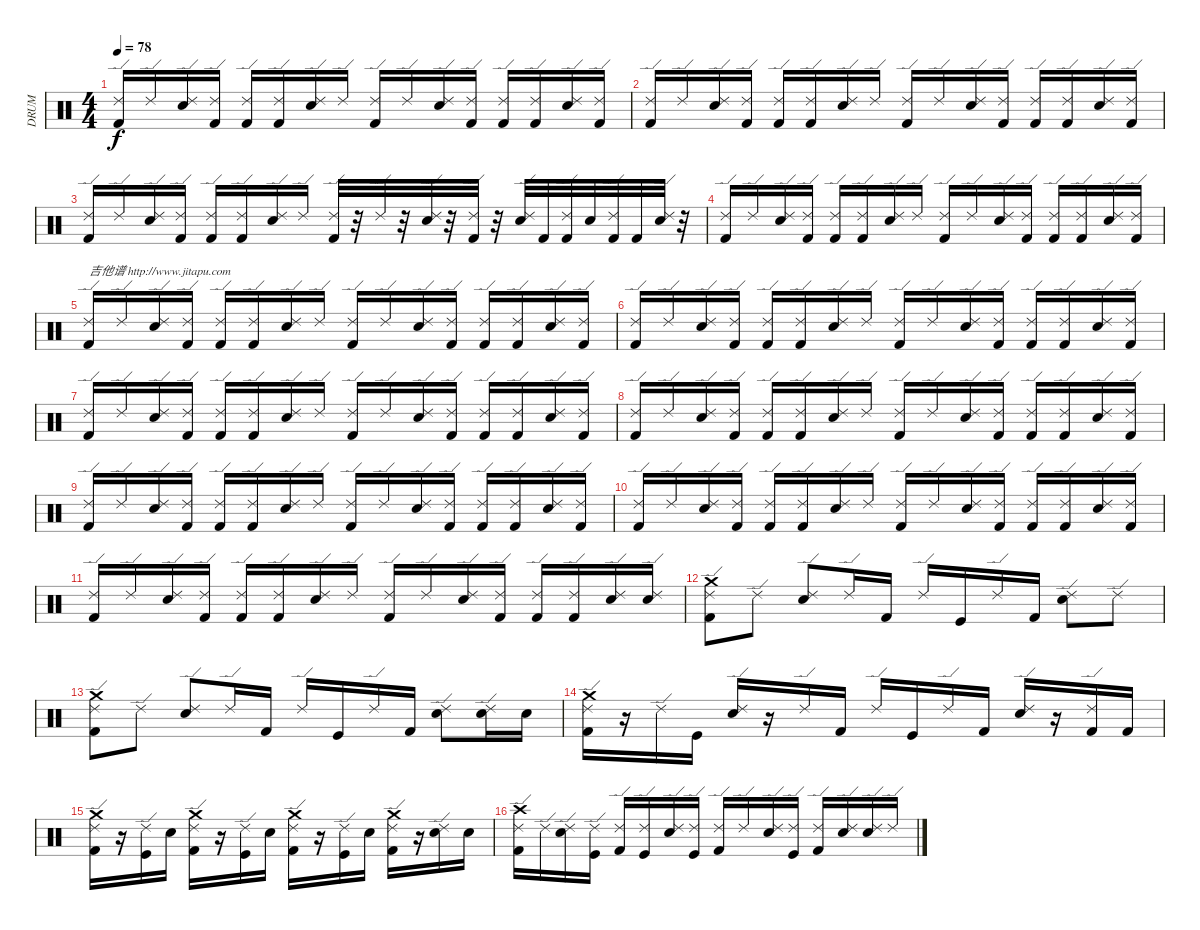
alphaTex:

\track ("DRUM" "DRUM") {instrument percussion}
\staff {score}
\articulation defaults
\ts (4 4)
\tempo 78
\clef neutral
\ks c
("Kick (hit) 2" "Ride (edge) 2").16{dy f} "Ride (edge) 2".16 ("Snare (hit) 2" "Ride (edge) 2").16 ("Kick (hit) 2" "Ride (edge) 2").16 ("Kick (hit) 2" "Ride (edge) 2").16 ("Kick (hit) 2" "Ride (edge) 2").16 ("Snare (hit) 2" "Ride (edge) 2").16 "Ride (edge) 2".16 ("Kick (hit) 2" "Ride (edge) 2").16 "Ride (edge) 2".16 ("Snare (hit) 2" "Ride (edge) 2").16 ("Kick (hit) 2" "Ride (edge) 2").16 ("Kick (hit) 2" "Ride (edge) 2").16 ("Kick (hit) 2" "Ride (edge) 2").16 ("Snare (hit) 2" "Ride (edge) 2").16 ("Kick (hit) 2" "Ride (edge) 2").16 |
("Kick (hit) 2" "Ride (edge) 2").16 "Ride (edge) 2".16 ("Snare (hit) 2" "Ride (edge) 2").16 ("Kick (hit) 2" "Ride (edge) 2").16 ("Kick (hit) 2" "Ride (edge) 2").16 ("Kick (hit) 2" "Ride (edge) 2").16 ("Snare (hit) 2" "Ride (edge) 2").16 "Ride (edge) 2".16 ("Kick (hit) 2" "Ride (edge) 2").16 "Ride (edge) 2".16 ("Snare (hit) 2" "Ride (edge) 2").16 ("Kick (hit) 2" "Ride (edge) 2").16 ("Kick (hit) 2" "Ride (edge) 2").16 ("Kick (hit) 2" "Ride (edge) 2").16 ("Snare (hit) 2" "Ride (edge) 2").16 ("Kick (hit) 2" "Ride (edge) 2").16 |
("Kick (hit) 2" "Ride (edge) 2").16 "Ride (edge) 2".16 ("Snare (hit) 2" "Ride (edge) 2").16 ("Kick (hit) 2" "Ride (edge) 2").16 ("Kick (hit) 2" "Ride (edge) 2").16 ("Kick (hit) 2" "Ride (edge) 2").16 ("Snare (hit) 2" "Ride (edge) 2").16 "Ride (edge) 2".16 ("Kick (hit) 2" "Ride (edge) 2").32 r.32 "Ride (edge) 2".32 r.32 ("Snare (hit) 2" "Ride (edge) 2").32 r.32 ("Kick (hit) 2" "Ride (edge) 2").32 r.32 ("Snare (hit) 2" "Ride (edge) 2").32 "Kick (hit) 2".32 ("Kick (hit) 2" "Ride (edge) 2").32 "Snare (hit) 2".32 ("Kick (hit) 2" "Ride (edge) 2").32 "Kick (hit) 2".32 ("Snare (hit) 2" "Ride (edge) 2").32 r.32 |
("Kick (hit) 2" "Ride (edge) 2").16 "Ride (edge) 2".16 ("Snare (hit) 2" "Ride (edge) 2").16 ("Kick (hit) 2" "Ride (edge) 2").16 ("Kick (hit) 2" "Ride (edge) 2").16 ("Kick (hit) 2" "Ride (edge) 2").16 ("Snare (hit) 2" "Ride (edge) 2").16 "Ride (edge) 2".16 ("Kick (hit) 2" "Ride (edge) 2").16 "Ride (edge) 2".16 ("Snare (hit) 2" "Ride (edge) 2").16 ("Kick (hit) 2" "Ride (edge) 2").16 ("Kick (hit) 2" "Ride (edge) 2").16 ("Kick (hit) 2" "Ride (edge) 2").16 ("Snare (hit) 2" "Ride (edge) 2").16 ("Kick (hit) 2" "Ride (edge) 2").16 |
("Kick (hit) 2" "Ride (edge) 2").16{txt "吉他谱 http://www.jitapu.com"} "Ride (edge) 2".16 ("Snare (hit) 2" "Ride (edge) 2").16 ("Kick (hit) 2" "Ride (edge) 2").16 ("Kick (hit) 2" "Ride (edge) 2").16 ("Kick (hit) 2" "Ride (edge) 2").16 ("Snare (hit) 2" "Ride (edge) 2").16 "Ride (edge) 2".16 ("Kick (hit) 2" "Ride (edge) 2").16 "Ride (edge) 2".16 ("Snare (hit) 2" "Ride (edge) 2").16 ("Kick (hit) 2" "Ride (edge) 2").16 ("Kick (hit) 2" "Ride (edge) 2").16 ("Kick (hit) 2" "Ride (edge) 2").16 ("Snare (hit) 2" "Ride (edge) 2").16 ("Kick (hit) 2" "Ride (edge) 2").16 |
("Kick (hit) 2" "Ride (edge) 2").16 "Ride (edge) 2".16 ("Snare (hit) 2" "Ride (edge) 2").16 ("Kick (hit) 2" "Ride (edge) 2").16 ("Kick (hit) 2" "Ride (edge) 2").16 ("Kick (hit) 2" "Ride (edge) 2").16 ("Snare (hit) 2" "Ride (edge) 2").16 "Ride (edge) 2".16 ("Kick (hit) 2" "Ride (edge) 2").16 "Ride (edge) 2".16 ("Snare (hit) 2" "Ride (edge) 2").16 ("Kick (hit) 2" "Ride (edge) 2").16 ("Kick (hit) 2" "Ride (edge) 2").16 ("Kick (hit) 2" "Ride (edge) 2").16 ("Snare (hit) 2" "Ride (edge) 2").16 ("Kick (hit) 2" "Ride (edge) 2").16 |
("Kick (hit) 2" "Ride (edge) 2").16 "Ride (edge) 2".16 ("Snare (hit) 2" "Ride (edge) 2").16 ("Kick (hit) 2" "Ride (edge) 2").16 ("Kick (hit) 2" "Ride (edge) 2").16 ("Kick (hit) 2" "Ride (edge) 2").16 ("Snare (hit) 2" "Ride (edge) 2").16 "Ride (edge) 2".16 ("Kick (hit) 2" "Ride (edge) 2").16 "Ride (edge) 2".16 ("Snare (hit) 2" "Ride (edge) 2").16 ("Kick (hit) 2" "Ride (edge) 2").16 ("Kick (hit) 2" "Ride (edge) 2").16 ("Kick (hit) 2" "Ride (edge) 2").16 ("Snare (hit) 2" "Ride (edge) 2").16 ("Kick (hit) 2" "Ride (edge) 2").16 |
("Kick (hit) 2" "Ride (edge) 2").16 "Ride (edge) 2".16 ("Snare (hit) 2" "Ride (edge) 2").16 ("Kick (hit) 2" "Ride (edge) 2").16 ("Kick (hit) 2" "Ride (edge) 2").16 ("Kick (hit) 2" "Ride (edge) 2").16 ("Snare (hit) 2" "Ride (edge) 2").16 "Ride (edge) 2".16 ("Kick (hit) 2" "Ride (edge) 2").16 "Ride (edge) 2".16 ("Snare (hit) 2" "Ride (edge) 2").16 ("Kick (hit) 2" "Ride (edge) 2").16 ("Kick (hit) 2" "Ride (edge) 2").16 ("Kick (hit) 2" "Ride (edge) 2").16 ("Snare (hit) 2" "Ride (edge) 2").16 ("Kick (hit) 2" "Ride (edge) 2").16 |
("Kick (hit) 2" "Ride (edge) 2").16 "Ride (edge) 2".16 ("Snare (hit) 2" "Ride (edge) 2").16 ("Kick (hit) 2" "Ride (edge) 2").16 ("Kick (hit) 2" "Ride (edge) 2").16 ("Kick (hit) 2" "Ride (edge) 2").16 ("Snare (hit) 2" "Ride (edge) 2").16 "Ride (edge) 2".16 ("Kick (hit) 2" "Ride (edge) 2").16 "Ride (edge) 2".16 ("Snare (hit) 2" "Ride (edge) 2").16 ("Kick (hit) 2" "Ride (edge) 2").16 ("Kick (hit) 2" "Ride (edge) 2").16 ("Kick (hit) 2" "Ride (edge) 2").16 ("Snare (hit) 2" "Ride (edge) 2").16 ("Kick (hit) 2" "Ride (edge) 2").16 |
("Kick (hit) 2" "Ride (edge) 2").16 "Ride (edge) 2".16 ("Snare (hit) 2" "Ride (edge) 2").16 ("Kick (hit) 2" "Ride (edge) 2").16 ("Kick (hit) 2" "Ride (edge) 2").16 ("Kick (hit) 2" "Ride (edge) 2").16 ("Snare (hit) 2" "Ride (edge) 2").16 "Ride (edge) 2".16 ("Kick (hit) 2" "Ride (edge) 2").16 "Ride (edge) 2".16 ("Snare (hit) 2" "Ride (edge) 2").16 ("Kick (hit) 2" "Ride (edge) 2").16 ("Kick (hit) 2" "Ride (edge) 2").16 ("Kick (hit) 2" "Ride (edge) 2").16 ("Snare (hit) 2" "Ride (edge) 2").16 ("Kick (hit) 2" "Ride (edge) 2").16 |
("Kick (hit) 2" "Ride (edge) 2").16 "Ride (edge) 2".16 ("Snare (hit) 2" "Ride (edge) 2").16 ("Kick (hit) 2" "Ride (edge) 2").16 ("Kick (hit) 2" "Ride (edge) 2").16 ("Kick (hit) 2" "Ride (edge) 2").16 ("Snare (hit) 2" "Ride (edge) 2").16 "Ride (edge) 2".16 ("Kick (hit) 2" "Ride (edge) 2").16 "Ride (edge) 2".16 ("Snare (hit) 2" "Ride (edge) 2").16 ("Kick (hit) 2" "Ride (edge) 2").16 ("Kick (hit) 2" "Ride (edge) 2").16 ("Kick (hit) 2" "Ride (edge) 2").16 ("Snare (hit) 2" "Ride (edge) 2").16 ("Snare (hit) 2" "Ride (edge) 2").16 |
("Kick (hit) 2" "Crash medium (hit)" "Ride (edge) 2").8 "Ride (edge) 2".8 ("Snare (hit) 2" "Ride (edge) 2").8 "Ride (edge) 2".16 "Kick (hit) 2".16 "Ride (edge) 2".16 "Kick (hit)".16 "Ride (edge) 2".16 "Kick (hit) 2".16 ("Snare (hit) 2" "Ride (edge) 2").8 "Ride (edge) 2".8 |
("Kick (hit) 2" "Crash medium (hit)" "Ride (edge) 2").8 "Ride (edge) 2".8 ("Snare (hit) 2" "Ride (edge) 2").8 "Ride (edge) 2".16 "Kick (hit) 2".16 "Ride (edge) 2".16 "Kick (hit)".16 "Ride (edge) 2".16 "Kick (hit) 2".16 ("Snare (hit) 2" "Ride (edge) 2").8 ("Snare (hit) 2" "Ride (edge) 2").16 "Snare (hit) 2".16 |
("Kick (hit) 2" "Crash medium (hit)" "Ride (edge) 2").16 r.16 "Ride (edge) 2".16 "Kick (hit)".16 ("Snare (hit) 2" "Ride (edge) 2").16 r.16 "Ride (edge) 2".16 "Kick (hit) 2".16 "Ride (edge) 2".16 "Kick (hit)".16 "Ride (edge) 2".16 "Kick (hit) 2".16 ("Snare (hit) 2" "Ride (edge) 2").16 r.16 ("Kick (hit) 2" "Ride (edge) 2").16 "Kick (hit) 2".16 |
("Kick (hit) 2" "Crash medium (hit)" "Ride (edge) 2").16 r.16 ("Kick (hit)" "Ride (edge) 2").16 "Snare (hit) 2".16 ("Kick (hit) 2" "Crash medium (hit)" "Ride (edge) 2").16 r.16 ("Kick (hit)" "Ride (edge) 2").16 "Snare (hit) 2".16 ("Kick (hit) 2" "Crash medium (hit)" "Ride (edge) 2").16 r.16 ("Kick (hit)" "Ride (edge) 2").16 "Snare (hit) 2".16 ("Kick (hit) 2" "Crash medium (hit)" "Ride (edge) 2").16 r.16 ("Snare (hit) 2" "Ride (edge) 2").16 "Snare (hit) 2".16 |
("Kick (hit) 2" "Crash high (hit)" "Ride (edge) 2").16 "Ride (edge) 2".16 ("Snare (hit) 2" "Ride (edge) 2").16 ("Kick (hit)" "Ride (edge) 2").16 ("Kick (hit) 2" "Ride (edge) 2").16 ("Kick (hit)" "Ride (edge) 2").16 ("Snare (hit) 2" "Ride (edge) 2").16 ("Kick (hit)" "Ride (edge) 2").16 ("Kick (hit) 2" "Ride (edge) 2").16 "Ride (edge) 2".16 ("Snare (hit) 2" "Ride (edge) 2").16 ("Kick (hit)" "Ride (edge) 2").16 ("Kick (hit) 2" "Ride (edge) 2").16 ("Snare (hit) 2" "Ride (edge) 2").16 ("Snare (hit) 2" "Ride (edge) 2").16 "Ride (edge) 2".16
